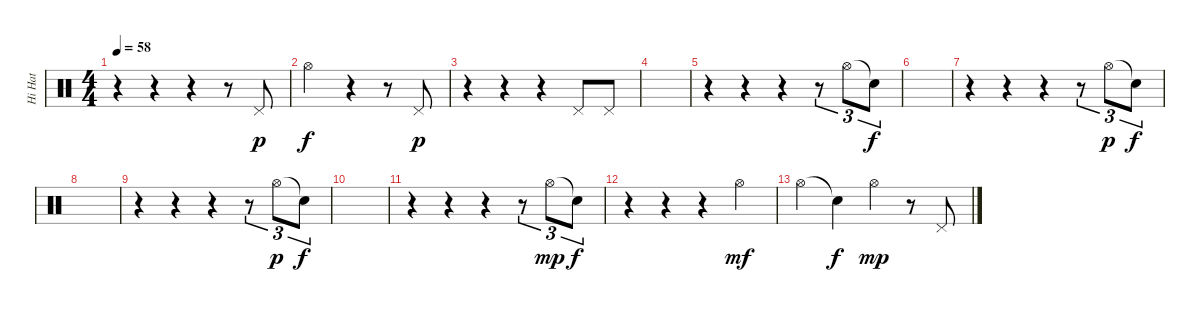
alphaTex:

\track ("Hi Hat" "Hi Hat") {instrument percussion}
\staff {score}
\articulation defaults
\ts (4 4)
\tempo 58
\clef neutral
\ks c
r.4{dy f} r.4 r.4 r.8 "Pedal Hi-Hat (hit)".8{dy p} |
"Hi-Hat (open)".2{dy f} r.4 r.8 "Pedal Hi-Hat (hit)".8{dy p} |
r.4 r.4 r.4 "Pedal Hi-Hat (hit)".8 "Pedal Hi-Hat (hit)".8 |
|
r.4 r.4 r.4 r.8{tu (3 2)} "Hi-Hat (open)".8{tu (3 2)} "Snare (hit)"{t}.8{tu (3 2) dy f} |
|
r.4 r.4 r.4 r.8{tu (3 2)} "Hi-Hat (open)".8{tu (3 2) dy p} "Snare (hit)"{t}.8{tu (3 2) dy f} |
|
r.4 r.4 r.4 r.8{tu (3 2)} "Hi-Hat (open)".8{tu (3 2) dy p} "Snare (hit)"{t}.8{tu (3 2) dy f} |
|
r.4 r.4 r.4 r.8{tu (3 2)} "Hi-Hat (open)".8{tu (3 2) dy mp} "Snare (hit)"{t}.8{tu (3 2) dy f} |
r.4 r.4 r.4 "Hi-Hat (open)".4{dy mf} |
"Hi-Hat (open)".4 "Snare (hit)"{t}.4{dy f} "Hi-Hat (open)".4{dy mp} r.8 "Pedal Hi-Hat (hit)".8
